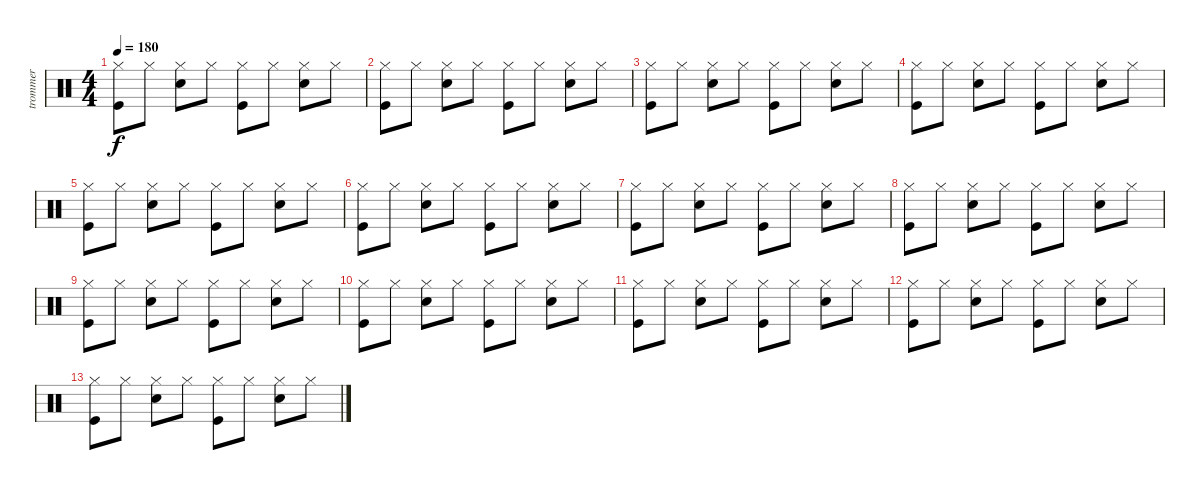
\track ("trommer" "trommer") {instrument percussion}
\staff {score}
\articulation defaults
\ts (4 4)
\tempo 180
\clef neutral
\ks c
("Kick (hit)" "Hi-Hat (closed)").8{dy f} "Hi-Hat (closed)".8 ("Electric Snare (hit)" "Hi-Hat (closed)").8 "Hi-Hat (closed)".8 ("Kick (hit)" "Hi-Hat (closed)").8 "Hi-Hat (closed)".8 ("Electric Snare (hit)" "Hi-Hat (closed)").8 "Hi-Hat (closed)".8 |
("Kick (hit)" "Hi-Hat (closed)").8 "Hi-Hat (closed)".8 ("Electric Snare (hit)" "Hi-Hat (closed)").8 "Hi-Hat (closed)".8 ("Kick (hit)" "Hi-Hat (closed)").8 "Hi-Hat (closed)".8 ("Electric Snare (hit)" "Hi-Hat (closed)").8 "Hi-Hat (closed)".8 |
("Kick (hit)" "Hi-Hat (closed)").8 "Hi-Hat (closed)".8 ("Electric Snare (hit)" "Hi-Hat (closed)").8 "Hi-Hat (closed)".8 ("Kick (hit)" "Hi-Hat (closed)").8 "Hi-Hat (closed)".8 ("Electric Snare (hit)" "Hi-Hat (closed)").8 "Hi-Hat (closed)".8 |
("Kick (hit)" "Hi-Hat (closed)").8 "Hi-Hat (closed)".8 ("Electric Snare (hit)" "Hi-Hat (closed)").8 "Hi-Hat (closed)".8 ("Kick (hit)" "Hi-Hat (closed)").8 "Hi-Hat (closed)".8 ("Electric Snare (hit)" "Hi-Hat (closed)").8 "Hi-Hat (closed)".8 |
("Kick (hit)" "Hi-Hat (closed)").8 "Hi-Hat (closed)".8 ("Electric Snare (hit)" "Hi-Hat (closed)").8 "Hi-Hat (closed)".8 ("Kick (hit)" "Hi-Hat (closed)").8 "Hi-Hat (closed)".8 ("Electric Snare (hit)" "Hi-Hat (closed)").8 "Hi-Hat (closed)".8 |
("Kick (hit)" "Hi-Hat (closed)").8 "Hi-Hat (closed)".8 ("Electric Snare (hit)" "Hi-Hat (closed)").8 "Hi-Hat (closed)".8 ("Kick (hit)" "Hi-Hat (closed)").8 "Hi-Hat (closed)".8 ("Electric Snare (hit)" "Hi-Hat (closed)").8 "Hi-Hat (closed)".8 |
("Kick (hit)" "Hi-Hat (closed)").8 "Hi-Hat (closed)".8 ("Electric Snare (hit)" "Hi-Hat (closed)").8 "Hi-Hat (closed)".8 ("Kick (hit)" "Hi-Hat (closed)").8 "Hi-Hat (closed)".8 ("Electric Snare (hit)" "Hi-Hat (closed)").8 "Hi-Hat (closed)".8 |
("Kick (hit)" "Hi-Hat (closed)").8 "Hi-Hat (closed)".8 ("Electric Snare (hit)" "Hi-Hat (closed)").8 "Hi-Hat (closed)".8 ("Kick (hit)" "Hi-Hat (closed)").8 "Hi-Hat (closed)".8 ("Electric Snare (hit)" "Hi-Hat (closed)").8 "Hi-Hat (closed)".8 |
("Kick (hit)" "Hi-Hat (closed)").8 "Hi-Hat (closed)".8 ("Electric Snare (hit)" "Hi-Hat (closed)").8 "Hi-Hat (closed)".8 ("Kick (hit)" "Hi-Hat (closed)").8 "Hi-Hat (closed)".8 ("Electric Snare (hit)" "Hi-Hat (closed)").8 "Hi-Hat (closed)".8 |
("Kick (hit)" "Hi-Hat (closed)").8 "Hi-Hat (closed)".8 ("Electric Snare (hit)" "Hi-Hat (closed)").8 "Hi-Hat (closed)".8 ("Kick (hit)" "Hi-Hat (closed)").8 "Hi-Hat (closed)".8 ("Electric Snare (hit)" "Hi-Hat (closed)").8 "Hi-Hat (closed)".8 |
("Kick (hit)" "Hi-Hat (closed)").8 "Hi-Hat (closed)".8 ("Electric Snare (hit)" "Hi-Hat (closed)").8 "Hi-Hat (closed)".8 ("Kick (hit)" "Hi-Hat (closed)").8 "Hi-Hat (closed)".8 ("Electric Snare (hit)" "Hi-Hat (closed)").8 "Hi-Hat (closed)".8 |
("Kick (hit)" "Hi-Hat (closed)").8 "Hi-Hat (closed)".8 ("Electric Snare (hit)" "Hi-Hat (closed)").8 "Hi-Hat (closed)".8 ("Kick (hit)" "Hi-Hat (closed)").8 "Hi-Hat (closed)".8 ("Electric Snare (hit)" "Hi-Hat (closed)").8 "Hi-Hat (closed)".8 |
("Kick (hit)" "Hi-Hat (closed)").8 "Hi-Hat (closed)".8 ("Electric Snare (hit)" "Hi-Hat (closed)").8 "Hi-Hat (closed)".8 ("Kick (hit)" "Hi-Hat (closed)").8 "Hi-Hat (closed)".8 ("Electric Snare (hit)" "Hi-Hat (closed)").8 "Hi-Hat (closed)".8
